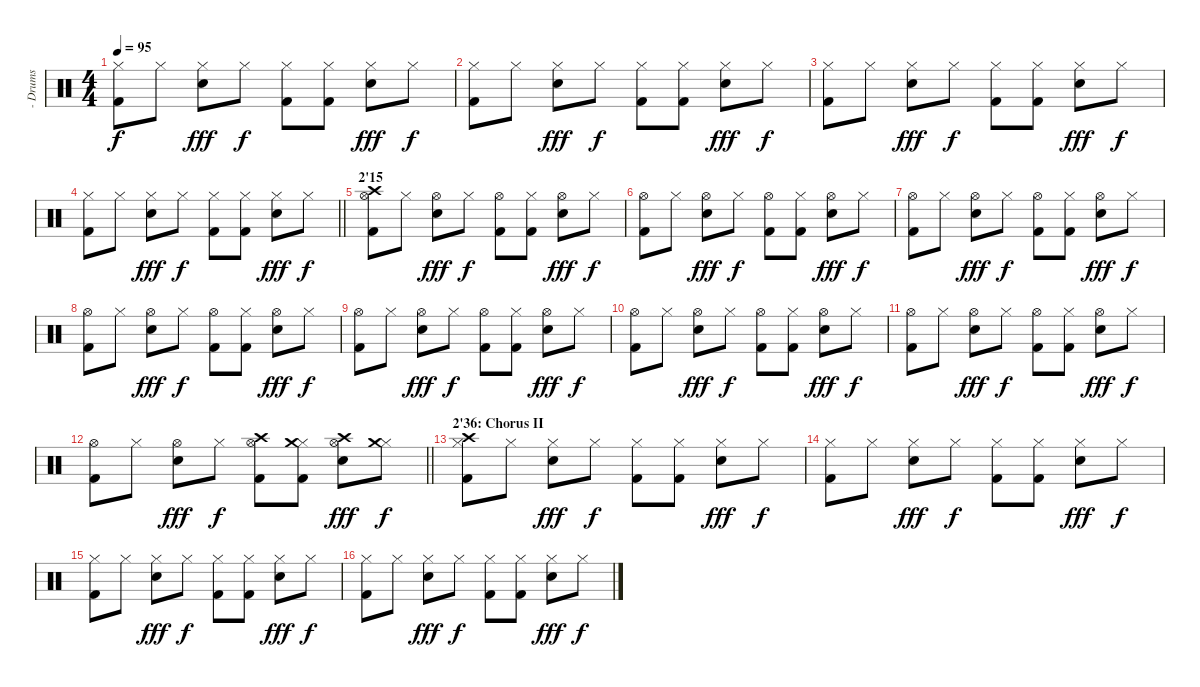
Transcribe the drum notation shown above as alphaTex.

\track ("- Drums" "- Drums") {instrument percussion}
\staff {score}
\articulation defaults
\ts (4 4)
\tempo 95
\clef neutral
\ks c
("Hi-Hat (closed)" "Kick (hit) 2").8{dy f} "Hi-Hat (closed)".8 ("Hi-Hat (closed)" "Electric Snare (hit)").8{dy fff} "Hi-Hat (closed)".8{dy f} ("Hi-Hat (closed)" "Kick (hit) 2").8 ("Hi-Hat (closed)" "Kick (hit) 2").8 ("Hi-Hat (closed)" "Electric Snare (hit)").8{dy fff} "Hi-Hat (closed)".8{dy f} |
("Hi-Hat (closed)" "Kick (hit) 2").8 "Hi-Hat (closed)".8 ("Hi-Hat (closed)" "Electric Snare (hit)").8{dy fff} "Hi-Hat (closed)".8{dy f} ("Hi-Hat (closed)" "Kick (hit) 2").8 ("Hi-Hat (closed)" "Kick (hit) 2").8 ("Hi-Hat (closed)" "Electric Snare (hit)").8{dy fff} "Hi-Hat (closed)".8{dy f} |
("Hi-Hat (closed)" "Kick (hit) 2").8 "Hi-Hat (closed)".8 ("Hi-Hat (closed)" "Electric Snare (hit)").8{dy fff} "Hi-Hat (closed)".8{dy f} ("Hi-Hat (closed)" "Kick (hit) 2").8 ("Hi-Hat (closed)" "Kick (hit) 2").8 ("Hi-Hat (closed)" "Electric Snare (hit)").8{dy fff} "Hi-Hat (closed)".8{dy f} |
\barLineRight lightlight
("Hi-Hat (closed)" "Kick (hit) 2").8 "Hi-Hat (closed)".8 ("Hi-Hat (closed)" "Electric Snare (hit)").8{dy fff} "Hi-Hat (closed)".8{dy f} ("Hi-Hat (closed)" "Kick (hit) 2").8 ("Hi-Hat (closed)" "Kick (hit) 2").8 ("Hi-Hat (closed)" "Electric Snare (hit)").8{dy fff} "Hi-Hat (closed)".8{dy f} |
\section ("" "2'15")
("Hi-Hat (open)" "Crash high (hit)" "Kick (hit) 2").8 "Hi-Hat (closed)".8 ("Hi-Hat (open)" "Electric Snare (hit)").8{dy fff} "Hi-Hat (closed)".8{dy f} ("Hi-Hat (open)" "Kick (hit) 2").8 ("Hi-Hat (closed)" "Kick (hit) 2").8 ("Hi-Hat (open)" "Electric Snare (hit)").8{dy fff} "Hi-Hat (closed)".8{dy f} |
("Hi-Hat (open)" "Kick (hit) 2").8 "Hi-Hat (closed)".8 ("Hi-Hat (open)" "Electric Snare (hit)").8{dy fff} "Hi-Hat (closed)".8{dy f} ("Hi-Hat (open)" "Kick (hit) 2").8 ("Hi-Hat (closed)" "Kick (hit) 2").8 ("Hi-Hat (open)" "Electric Snare (hit)").8{dy fff} "Hi-Hat (closed)".8{dy f} |
("Hi-Hat (open)" "Kick (hit) 2").8 "Hi-Hat (closed)".8 ("Hi-Hat (open)" "Electric Snare (hit)").8{dy fff} "Hi-Hat (closed)".8{dy f} ("Hi-Hat (open)" "Kick (hit) 2").8 ("Hi-Hat (closed)" "Kick (hit) 2").8 ("Hi-Hat (open)" "Electric Snare (hit)").8{dy fff} "Hi-Hat (closed)".8{dy f} |
("Hi-Hat (open)" "Kick (hit) 2").8 "Hi-Hat (closed)".8 ("Hi-Hat (open)" "Electric Snare (hit)").8{dy fff} "Hi-Hat (closed)".8{dy f} ("Hi-Hat (open)" "Kick (hit) 2").8 ("Hi-Hat (closed)" "Kick (hit) 2").8 ("Hi-Hat (open)" "Electric Snare (hit)").8{dy fff} "Hi-Hat (closed)".8{dy f} |
("Hi-Hat (open)" "Kick (hit) 2").8 "Hi-Hat (closed)".8 ("Hi-Hat (open)" "Electric Snare (hit)").8{dy fff} "Hi-Hat (closed)".8{dy f} ("Hi-Hat (open)" "Kick (hit) 2").8 ("Hi-Hat (closed)" "Kick (hit) 2").8 ("Hi-Hat (open)" "Electric Snare (hit)").8{dy fff} "Hi-Hat (closed)".8{dy f} |
("Hi-Hat (open)" "Kick (hit) 2").8 "Hi-Hat (closed)".8 ("Hi-Hat (open)" "Electric Snare (hit)").8{dy fff} "Hi-Hat (closed)".8{dy f} ("Hi-Hat (open)" "Kick (hit) 2").8 ("Hi-Hat (closed)" "Kick (hit) 2").8 ("Hi-Hat (open)" "Electric Snare (hit)").8{dy fff} "Hi-Hat (closed)".8{dy f} |
("Hi-Hat (open)" "Kick (hit) 2").8 "Hi-Hat (closed)".8 ("Hi-Hat (open)" "Electric Snare (hit)").8{dy fff} "Hi-Hat (closed)".8{dy f} ("Hi-Hat (open)" "Kick (hit) 2").8 ("Hi-Hat (closed)" "Kick (hit) 2").8 ("Hi-Hat (open)" "Electric Snare (hit)").8{dy fff} "Hi-Hat (closed)".8{dy f} |
\barLineRight lightlight
("Hi-Hat (open)" "Kick (hit) 2").8 "Hi-Hat (closed)".8 ("Hi-Hat (open)" "Electric Snare (hit)").8{dy fff} "Hi-Hat (closed)".8{dy f} ("Hi-Hat (open)" "Crash high (hit)" "Kick (hit) 2").8 ("Hi-Hat (closed)" "Crash medium (hit)" "Kick (hit) 2").8 ("Hi-Hat (open)" "Crash high (hit)" "Electric Snare (hit)").8{dy fff} ("Hi-Hat (closed)" "Crash medium (hit)").8{dy f} |
\section ("" "2'36: Chorus II")
("Hi-Hat (closed)" "Crash high (hit)" "Kick (hit) 2").8 "Hi-Hat (closed)".8 ("Hi-Hat (closed)" "Electric Snare (hit)").8{dy fff} "Hi-Hat (closed)".8{dy f} ("Hi-Hat (closed)" "Kick (hit) 2").8 ("Hi-Hat (closed)" "Kick (hit) 2").8 ("Hi-Hat (closed)" "Electric Snare (hit)").8{dy fff} "Hi-Hat (closed)".8{dy f} |
("Hi-Hat (closed)" "Kick (hit) 2").8 "Hi-Hat (closed)".8 ("Hi-Hat (closed)" "Electric Snare (hit)").8{dy fff} "Hi-Hat (closed)".8{dy f} ("Hi-Hat (closed)" "Kick (hit) 2").8 ("Hi-Hat (closed)" "Kick (hit) 2").8 ("Hi-Hat (closed)" "Electric Snare (hit)").8{dy fff} "Hi-Hat (closed)".8{dy f} |
("Hi-Hat (closed)" "Kick (hit) 2").8 "Hi-Hat (closed)".8 ("Hi-Hat (closed)" "Electric Snare (hit)").8{dy fff} "Hi-Hat (closed)".8{dy f} ("Hi-Hat (closed)" "Kick (hit) 2").8 ("Hi-Hat (closed)" "Kick (hit) 2").8 ("Hi-Hat (closed)" "Electric Snare (hit)").8{dy fff} "Hi-Hat (closed)".8{dy f} |
("Hi-Hat (closed)" "Kick (hit) 2").8 "Hi-Hat (closed)".8 ("Hi-Hat (closed)" "Electric Snare (hit)").8{dy fff} "Hi-Hat (closed)".8{dy f} ("Hi-Hat (closed)" "Kick (hit) 2").8 ("Hi-Hat (closed)" "Kick (hit) 2").8 ("Hi-Hat (closed)" "Electric Snare (hit)").8{dy fff} "Hi-Hat (closed)".8{dy f}
